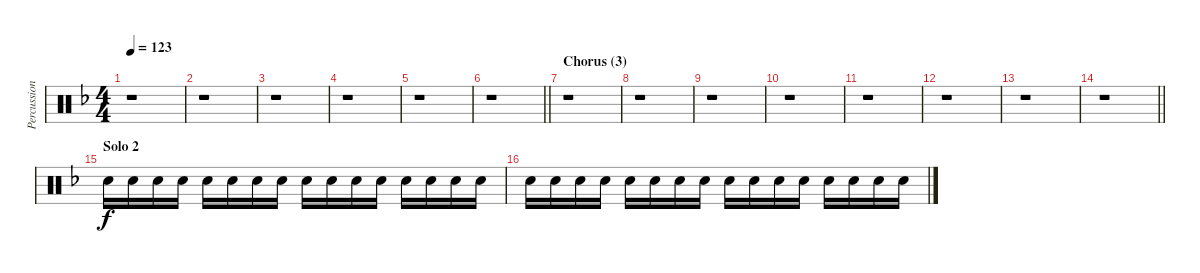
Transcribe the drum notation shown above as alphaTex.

\track ("Percussion" "Percussion") {instrument percussion}
\staff {score}
\articulation defaults
\ts (4 4)
\tempo 123
\clef neutral
\ks dminor
r.1{dy fff} |
r.1 |
r.1 |
r.1 |
r.1 |
\barLineRight lightlight
r.1 |
\section ("" "Chorus (3)")
r.1 |
r.1 |
r.1 |
r.1 |
r.1 |
r.1 |
r.1 |
\barLineRight lightlight
r.1 |
\section ("" "Solo 2")
"Hand Clap (hit)".16{dy f} "Hand Clap (hit)".16 "Hand Clap (hit)".16 "Hand Clap (hit)".16 "Hand Clap (hit)".16 "Hand Clap (hit)".16 "Hand Clap (hit)".16 "Hand Clap (hit)".16 "Hand Clap (hit)".16 "Hand Clap (hit)".16 "Hand Clap (hit)".16 "Hand Clap (hit)".16 "Hand Clap (hit)".16 "Hand Clap (hit)".16 "Hand Clap (hit)".16 "Hand Clap (hit)".16 |
"Hand Clap (hit)".16 "Hand Clap (hit)".16 "Hand Clap (hit)".16 "Hand Clap (hit)".16 "Hand Clap (hit)".16 "Hand Clap (hit)".16 "Hand Clap (hit)".16 "Hand Clap (hit)".16 "Hand Clap (hit)".16 "Hand Clap (hit)".16 "Hand Clap (hit)".16 "Hand Clap (hit)".16 "Hand Clap (hit)".16 "Hand Clap (hit)".16 "Hand Clap (hit)".16 "Hand Clap (hit)".16
